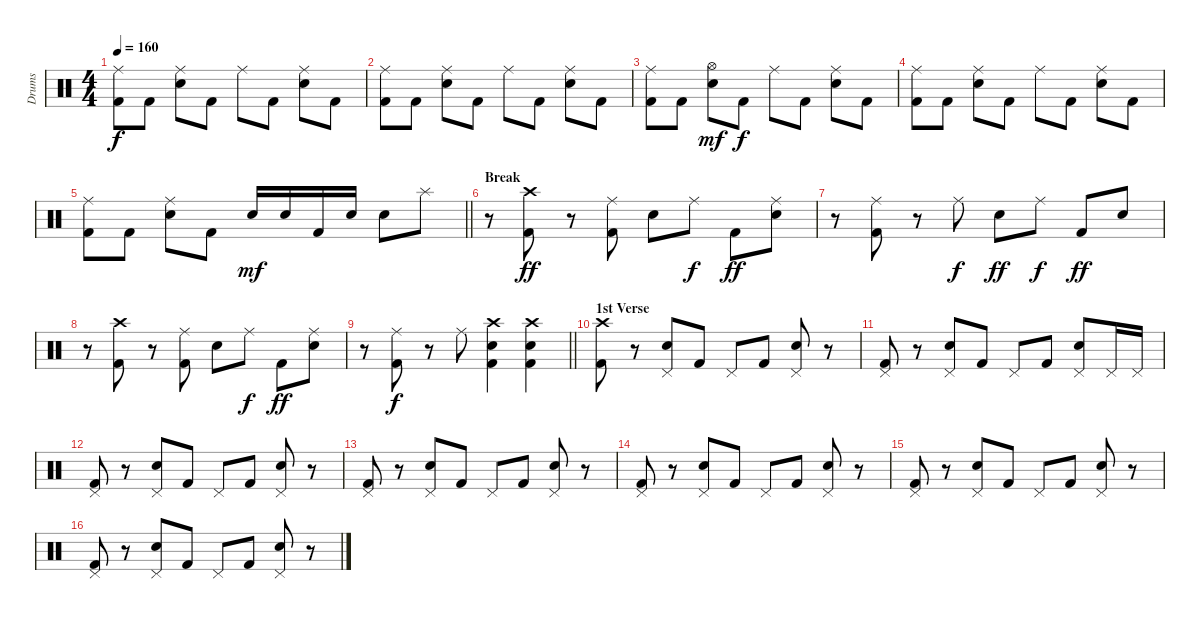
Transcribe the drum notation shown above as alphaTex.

\track ("Drums" "Drums") {instrument percussion}
\staff {score}
\articulation defaults
\ts (4 4)
\tempo 160
\clef neutral
\ks c
("Ride (middle)" "Kick (hit) 2").8{dy f} "Kick (hit) 2".8 ("Ride (middle)" "Electric Snare (hit)").8 "Kick (hit) 2".8 "Ride (middle)".8 "Kick (hit) 2".8 ("Ride (middle)" "Electric Snare (hit)").8 "Kick (hit) 2".8 |
("Ride (middle)" "Kick (hit) 2").8 "Kick (hit) 2".8 ("Ride (middle)" "Electric Snare (hit)").8 "Kick (hit) 2".8 "Ride (middle)".8 "Kick (hit) 2".8 ("Ride (middle)" "Electric Snare (hit)").8 "Kick (hit) 2".8 |
("Ride (middle)" "Kick (hit) 2").8 "Kick (hit) 2".8 ("Hi-Hat (open)" "Electric Snare (hit)").8{dy mf} "Kick (hit) 2".8{dy f} "Ride (middle)".8 "Kick (hit) 2".8 ("Ride (middle)" "Electric Snare (hit)").8 "Kick (hit) 2".8 |
("Ride (middle)" "Kick (hit) 2").8 "Kick (hit) 2".8 ("Ride (middle)" "Electric Snare (hit)").8 "Kick (hit) 2".8 "Ride (middle)".8 "Kick (hit) 2".8 ("Ride (middle)" "Electric Snare (hit)").8 "Kick (hit) 2".8 |
\barLineRight lightlight
("Ride (middle)" "Kick (hit) 2").8 "Kick (hit) 2".8 ("Ride (middle)" "Electric Snare (hit)").8 "Kick (hit) 2".8 "Electric Snare (hit)".16{dy mf} "Electric Snare (hit)".16 "Kick (hit) 2".16 "Electric Snare (hit)".16 "Electric Snare (hit)".8 "Splash (hit)".8 |
\section ("" "Break")
r.8 ("Crash high (hit)" "Kick (hit) 2").8{dy ff} r.8 ("Ride (middle)" "Kick (hit) 2").8 "Electric Snare (hit)".8 "Ride (middle)".8{dy f} "Kick (hit) 2".8{dy ff} ("Ride (middle)" "Electric Snare (hit)").8 |
r.8 ("Ride (middle)" "Kick (hit) 2").8 r.8 "Ride (middle)".8{dy f} "Electric Snare (hit)".8{dy ff} "Ride (middle)".8{dy f} "Kick (hit) 2".8{dy ff} "Electric Snare (hit)".8 |
r.8 ("Crash high (hit)" "Kick (hit) 2").8 r.8 ("Ride (middle)" "Kick (hit) 2").8 "Electric Snare (hit)".8 "Ride (middle)".8{dy f} "Kick (hit) 2".8{dy ff} ("Ride (middle)" "Electric Snare (hit)").8 |
\barLineRight lightlight
r.8 ("Ride (middle)" "Kick (hit) 2").8{dy f} r.8 "Ride (middle)".8 ("Crash high (hit)" "Electric Snare (hit)" "Kick (hit) 2").4 ("Crash high (hit)" "Electric Snare (hit)" "Kick (hit) 2").4 |
\section ("" "1st Verse")
("Crash high (hit)" "Kick (hit) 2").8 r.8 ("Pedal Hi-Hat (hit)" "Electric Snare (hit)").8 "Kick (hit) 2".8 "Pedal Hi-Hat (hit)".8 "Kick (hit) 2".8 ("Pedal Hi-Hat (hit)" "Electric Snare (hit)").8 r.8 |
("Pedal Hi-Hat (hit)" "Kick (hit) 2").8 r.8 ("Pedal Hi-Hat (hit)" "Electric Snare (hit)").8 "Kick (hit) 2".8 "Pedal Hi-Hat (hit)".8 "Kick (hit) 2".8 ("Pedal Hi-Hat (hit)" "Electric Snare (hit)").8 "Pedal Hi-Hat (hit)".16 "Pedal Hi-Hat (hit)".16 |
("Pedal Hi-Hat (hit)" "Kick (hit) 2").8 r.8 ("Pedal Hi-Hat (hit)" "Electric Snare (hit)").8 "Kick (hit) 2".8 "Pedal Hi-Hat (hit)".8 "Kick (hit) 2".8 ("Pedal Hi-Hat (hit)" "Electric Snare (hit)").8 r.8 |
("Pedal Hi-Hat (hit)" "Kick (hit) 2").8 r.8 ("Pedal Hi-Hat (hit)" "Electric Snare (hit)").8 "Kick (hit) 2".8 "Pedal Hi-Hat (hit)".8 "Kick (hit) 2".8 ("Pedal Hi-Hat (hit)" "Electric Snare (hit)").8 r.8 |
("Pedal Hi-Hat (hit)" "Kick (hit) 2").8 r.8 ("Pedal Hi-Hat (hit)" "Electric Snare (hit)").8 "Kick (hit) 2".8 "Pedal Hi-Hat (hit)".8 "Kick (hit) 2".8 ("Pedal Hi-Hat (hit)" "Electric Snare (hit)").8 r.8 |
("Pedal Hi-Hat (hit)" "Kick (hit) 2").8 r.8 ("Pedal Hi-Hat (hit)" "Electric Snare (hit)").8 "Kick (hit) 2".8 "Pedal Hi-Hat (hit)".8 "Kick (hit) 2".8 ("Pedal Hi-Hat (hit)" "Electric Snare (hit)").8 r.8 |
("Pedal Hi-Hat (hit)" "Kick (hit) 2").8 r.8 ("Pedal Hi-Hat (hit)" "Electric Snare (hit)").8 "Kick (hit) 2".8 "Pedal Hi-Hat (hit)".8 "Kick (hit) 2".8 ("Pedal Hi-Hat (hit)" "Electric Snare (hit)").8 r.8
